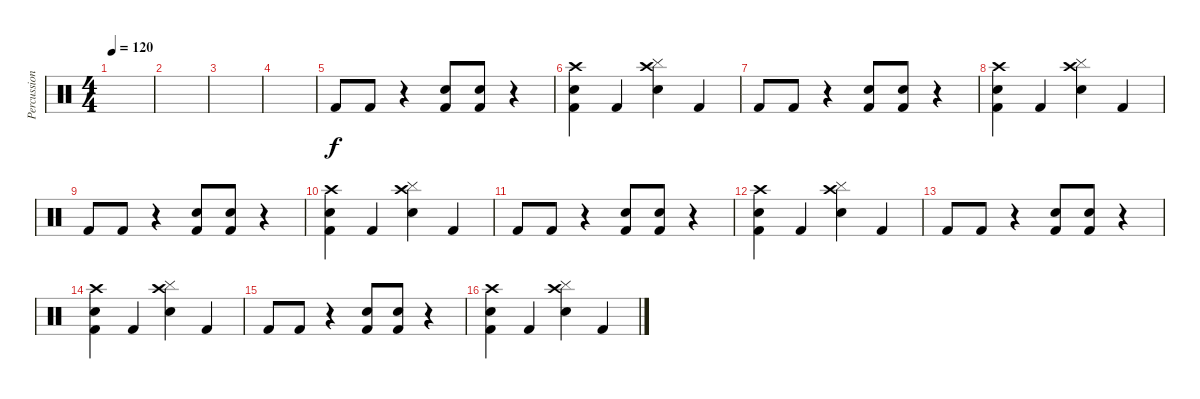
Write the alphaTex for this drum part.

\track ("Percussion" "Percussion") {instrument percussion}
\staff {score}
\articulation defaults
\ts (4 4)
\tempo 120
\clef neutral
\ks c
|
|
|
|
"Kick (hit) 2".8 "Kick (hit) 2".8 r.4 ("Electric Snare (hit)" "Kick (hit) 2").8 ("Electric Snare (hit)" "Kick (hit) 2").8 r.4 |
("Crash high (hit)" "Electric Snare (hit)" "Kick (hit) 2").4 "Kick (hit) 2".4 ("Crash high (hit)" "Electric Snare (hit)" "Cymbal (hit)").4 "Kick (hit) 2".4 |
"Kick (hit) 2".8 "Kick (hit) 2".8 r.4 ("Electric Snare (hit)" "Kick (hit) 2").8 ("Electric Snare (hit)" "Kick (hit) 2").8 r.4 |
("Crash high (hit)" "Electric Snare (hit)" "Kick (hit) 2").4 "Kick (hit) 2".4 ("Crash high (hit)" "Electric Snare (hit)" "Cymbal (hit)").4 "Kick (hit) 2".4 |
"Kick (hit) 2".8 "Kick (hit) 2".8 r.4 ("Electric Snare (hit)" "Kick (hit) 2").8 ("Electric Snare (hit)" "Kick (hit) 2").8 r.4 |
("Crash high (hit)" "Electric Snare (hit)" "Kick (hit) 2").4 "Kick (hit) 2".4 ("Crash high (hit)" "Electric Snare (hit)" "Cymbal (hit)").4 "Kick (hit) 2".4 |
"Kick (hit) 2".8 "Kick (hit) 2".8 r.4 ("Electric Snare (hit)" "Kick (hit) 2").8 ("Electric Snare (hit)" "Kick (hit) 2").8 r.4 |
("Crash high (hit)" "Electric Snare (hit)" "Kick (hit) 2").4 "Kick (hit) 2".4 ("Crash high (hit)" "Electric Snare (hit)" "Cymbal (hit)").4 "Kick (hit) 2".4 |
"Kick (hit) 2".8 "Kick (hit) 2".8 r.4 ("Electric Snare (hit)" "Kick (hit) 2").8 ("Electric Snare (hit)" "Kick (hit) 2").8 r.4 |
("Crash high (hit)" "Electric Snare (hit)" "Kick (hit) 2").4 "Kick (hit) 2".4 ("Crash high (hit)" "Electric Snare (hit)" "Cymbal (hit)").4 "Kick (hit) 2".4 |
"Kick (hit) 2".8 "Kick (hit) 2".8 r.4 ("Electric Snare (hit)" "Kick (hit) 2").8 ("Electric Snare (hit)" "Kick (hit) 2").8 r.4 |
("Crash high (hit)" "Electric Snare (hit)" "Kick (hit) 2").4 "Kick (hit) 2".4 ("Crash high (hit)" "Electric Snare (hit)" "Cymbal (hit)").4 "Kick (hit) 2".4
